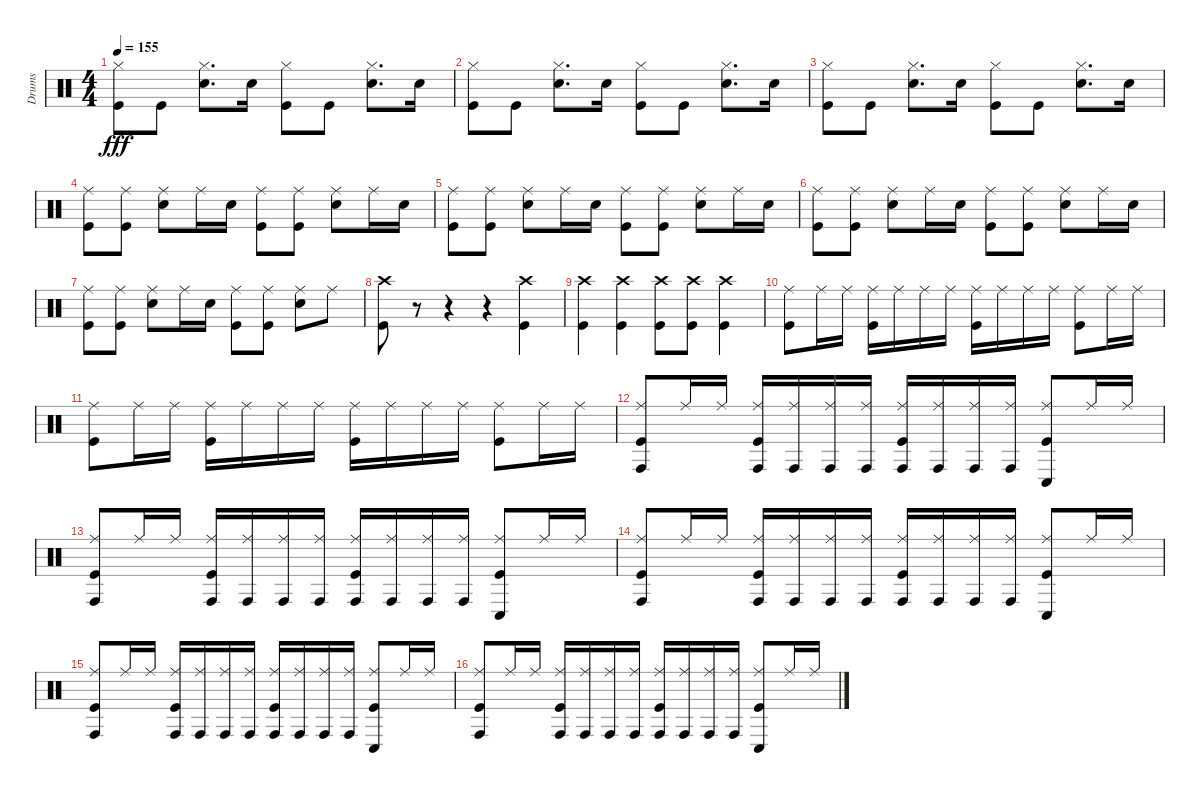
\track ("Drums" "Drums") {instrument percussion}
\staff {score}
\articulation defaults
\ts (4 4)
\tempo 155
\clef neutral
\ks c
("Hi-Hat (closed)" "Kick (hit)").8{dy fff} "Kick (hit)".8 ("Hi-Hat (closed)" "Snare (hit) 2").8{d} "Snare (hit) 2".16 ("Hi-Hat (closed)" "Kick (hit)").8 "Kick (hit)".8 ("Hi-Hat (closed)" "Snare (hit) 2").8{d} "Snare (hit) 2".16 |
("Hi-Hat (closed)" "Kick (hit)").8 "Kick (hit)".8 ("Hi-Hat (closed)" "Snare (hit) 2").8{d} "Snare (hit) 2".16 ("Hi-Hat (closed)" "Kick (hit)").8 "Kick (hit)".8 ("Hi-Hat (closed)" "Snare (hit) 2").8{d} "Snare (hit) 2".16 |
("Hi-Hat (closed)" "Kick (hit)").8 "Kick (hit)".8 ("Hi-Hat (closed)" "Snare (hit) 2").8{d} "Snare (hit) 2".16 ("Hi-Hat (closed)" "Kick (hit)").8 "Kick (hit)".8 ("Hi-Hat (closed)" "Snare (hit) 2").8{d} "Snare (hit) 2".16 |
("Ride (middle)" "Kick (hit)").8 ("Ride (middle)" "Kick (hit)").8 ("Ride (middle)" "Snare (hit) 2").8 "Ride (middle)".16 "Snare (hit) 2".16 ("Ride (middle)" "Kick (hit)").8 ("Ride (middle)" "Kick (hit)").8 ("Ride (middle)" "Snare (hit) 2").8 "Ride (middle)".16 "Snare (hit) 2".16 |
("Ride (middle)" "Kick (hit)").8 ("Ride (middle)" "Kick (hit)").8 ("Ride (middle)" "Snare (hit) 2").8 "Ride (middle)".16 "Snare (hit) 2".16 ("Ride (middle)" "Kick (hit)").8 ("Ride (middle)" "Kick (hit)").8 ("Ride (middle)" "Snare (hit) 2").8 "Ride (middle)".16 "Snare (hit) 2".16 |
("Ride (middle)" "Kick (hit)").8 ("Ride (middle)" "Kick (hit)").8 ("Ride (middle)" "Snare (hit) 2").8 "Ride (middle)".16 "Snare (hit) 2".16 ("Ride (middle)" "Kick (hit)").8 ("Ride (middle)" "Kick (hit)").8 ("Ride (middle)" "Snare (hit) 2").8 "Ride (middle)".16 "Snare (hit) 2".16 |
("Ride (middle)" "Kick (hit)").8 ("Ride (middle)" "Kick (hit)").8 ("Ride (middle)" "Snare (hit) 2").8 "Ride (middle)".16 "Snare (hit) 2".16 ("Ride (middle)" "Kick (hit)").8 ("Ride (middle)" "Kick (hit)").8 ("Ride (middle)" "Snare (hit) 2").8 "Ride (middle)".8 |
("Crash high (hit)" "Kick (hit)").8 r.8 r.4 r.4 ("Crash high (hit)" "Kick (hit)").4 |
("Crash high (hit)" "Kick (hit)").4 ("Crash high (hit)" "Kick (hit)").4 ("Crash high (hit)" "Kick (hit)").8 ("Crash high (hit)" "Kick (hit)").8 ("Crash high (hit)" "Kick (hit)").4 |
("Ride (middle)" "Kick (hit)").8 "Ride (middle)".16 "Ride (middle)".16 ("Ride (middle)" "Kick (hit)").16 "Ride (middle)".16 "Ride (middle)".16 "Ride (middle)".16 ("Ride (middle)" "Kick (hit)").16 "Ride (middle)".16 "Ride (middle)".16 "Ride (middle)".16 ("Ride (middle)" "Kick (hit)").8 "Ride (middle)".16 "Ride (middle)".16 |
("Ride (middle)" "Kick (hit)").8 "Ride (middle)".16 "Ride (middle)".16 ("Ride (middle)" "Kick (hit)").16 "Ride (middle)".16 "Ride (middle)".16 "Ride (middle)".16 ("Ride (middle)" "Kick (hit)").16 "Ride (middle)".16 "Ride (middle)".16 "Ride (middle)".16 ("Ride (middle)" "Kick (hit)").8 "Ride (middle)".16 "Ride (middle)".16 |
("Ride (middle)" "Conga high (hit)" "Kick (hit)").8 "Ride (middle)".16 "Ride (middle)".16 ("Ride (middle)" "Conga high (hit)" "Kick (hit)").16 ("Ride (middle)" "Conga high (hit)").16 ("Ride (middle)" "Conga high (hit)").16 ("Ride (middle)" "Conga high (hit)").16 ("Ride (middle)" "Conga high (hit)" "Kick (hit)").16 ("Ride (middle)" "Conga high (hit)").16 ("Ride (middle)" "Conga high (hit)").16 ("Ride (middle)" "Conga high (hit)").16 ("Ride (middle)" "Conga low (hit)" "Kick (hit)").8 "Ride (middle)".16 "Ride (middle)".16 |
("Ride (middle)" "Conga high (hit)" "Kick (hit)").8 "Ride (middle)".16 "Ride (middle)".16 ("Ride (middle)" "Conga high (hit)" "Kick (hit)").16 ("Ride (middle)" "Conga high (hit)").16 ("Ride (middle)" "Conga high (hit)").16 ("Ride (middle)" "Conga high (hit)").16 ("Ride (middle)" "Conga high (hit)" "Kick (hit)").16 ("Ride (middle)" "Conga high (hit)").16 ("Ride (middle)" "Conga high (hit)").16 ("Ride (middle)" "Conga high (hit)").16 ("Ride (middle)" "Conga low (hit)" "Kick (hit)").8 "Ride (middle)".16 "Ride (middle)".16 |
("Ride (middle)" "Conga high (hit)" "Kick (hit)").8 "Ride (middle)".16 "Ride (middle)".16 ("Ride (middle)" "Conga high (hit)" "Kick (hit)").16 ("Ride (middle)" "Conga high (hit)").16 ("Ride (middle)" "Conga high (hit)").16 ("Ride (middle)" "Conga high (hit)").16 ("Ride (middle)" "Conga high (hit)" "Kick (hit)").16 ("Ride (middle)" "Conga high (hit)").16 ("Ride (middle)" "Conga high (hit)").16 ("Ride (middle)" "Conga high (hit)").16 ("Ride (middle)" "Conga low (hit)" "Kick (hit)").8 "Ride (middle)".16 "Ride (middle)".16 |
("Ride (middle)" "Conga high (hit)" "Kick (hit)").8 "Ride (middle)".16 "Ride (middle)".16 ("Ride (middle)" "Conga high (hit)" "Kick (hit)").16 ("Ride (middle)" "Conga high (hit)").16 ("Ride (middle)" "Conga high (hit)").16 ("Ride (middle)" "Conga high (hit)").16 ("Ride (middle)" "Conga high (hit)" "Kick (hit)").16 ("Ride (middle)" "Conga high (hit)").16 ("Ride (middle)" "Conga high (hit)").16 ("Ride (middle)" "Conga high (hit)").16 ("Ride (middle)" "Conga low (hit)" "Kick (hit)").8 "Ride (middle)".16 "Ride (middle)".16 |
("Ride (middle)" "Conga high (hit)" "Kick (hit)").8 "Ride (middle)".16 "Ride (middle)".16 ("Ride (middle)" "Conga high (hit)" "Kick (hit)").16 ("Ride (middle)" "Conga high (hit)").16 ("Ride (middle)" "Conga high (hit)").16 ("Ride (middle)" "Conga high (hit)").16 ("Ride (middle)" "Conga high (hit)" "Kick (hit)").16 ("Ride (middle)" "Conga high (hit)").16 ("Ride (middle)" "Conga high (hit)").16 ("Ride (middle)" "Conga high (hit)").16 ("Ride (middle)" "Conga low (hit)" "Kick (hit)").8 "Ride (middle)".16 "Ride (middle)".16
